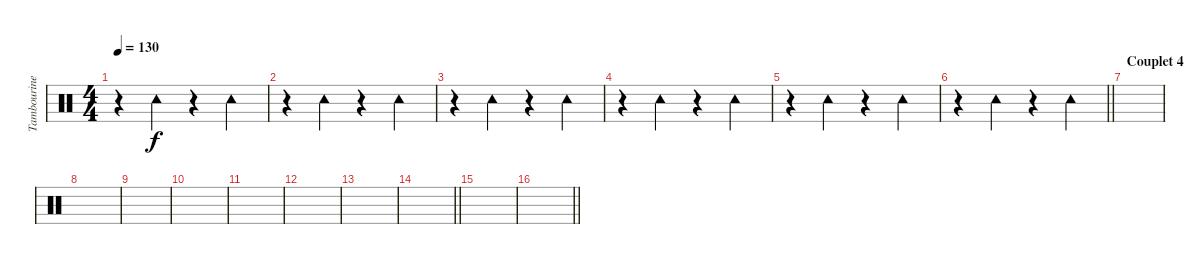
\track ("Tambourine" "Tambourine") {instrument percussion}
\staff {score}
\articulation defaults
\ts (4 4)
\tempo 130
\clef neutral
\ks c
r.4{dy f} "Tambourine (hit)".4 r.4 "Tambourine (hit)".4 |
r.4 "Tambourine (hit)".4 r.4 "Tambourine (hit)".4 |
r.4 "Tambourine (hit)".4 r.4 "Tambourine (hit)".4 |
r.4 "Tambourine (hit)".4 r.4 "Tambourine (hit)".4 |
r.4 "Tambourine (hit)".4 r.4 "Tambourine (hit)".4 |
\barLineRight lightlight
r.4 "Tambourine (hit)".4 r.4 "Tambourine (hit)".4 |
\section ("" "Couplet 4")
|
|
|
|
|
|
|
\barLineRight lightlight
|
|
\barLineRight lightlight
